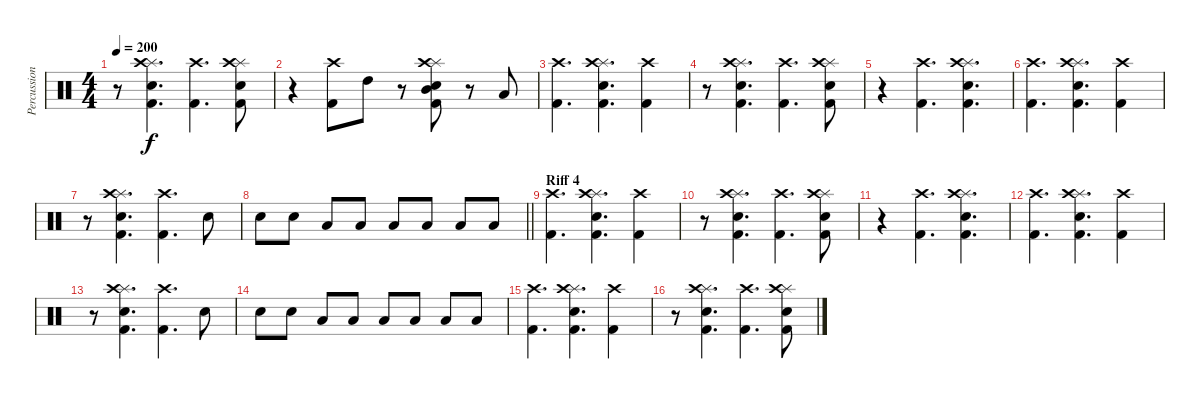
\track ("Percussion" "Percussion") {instrument percussion}
\staff {score}
\articulation defaults
\ts (4 4)
\tempo 200
\clef neutral
\ks c
r.8{dy f} ("Splash (hit)" "Crash high (hit)" "Electric Snare (hit)" "Kick (hit) 2").4{d} ("Crash high (hit)" "Kick (hit) 2").4{d} ("Splash (hit)" "Crash high (hit)" "Electric Snare (hit)" "Kick (hit) 2").8 |
r.4 ("Crash high (hit)" "Kick (hit) 2").8 "High Tom (hit)".8 r.8 ("Splash (hit)" "Mid Tom (hit)" "Crash high (hit)" "Electric Snare (hit)" "Kick (hit) 2").8 r.8 "Low Tom (hit)".8 |
("Crash high (hit)" "Kick (hit) 2").4{d} ("Splash (hit)" "Crash high (hit)" "Electric Snare (hit)" "Kick (hit) 2").4{d} ("Crash high (hit)" "Kick (hit) 2").4 |
r.8 ("Splash (hit)" "Crash high (hit)" "Electric Snare (hit)" "Kick (hit) 2").4{d} ("Crash high (hit)" "Kick (hit) 2").4{d} ("Splash (hit)" "Crash high (hit)" "Electric Snare (hit)" "Kick (hit) 2").8 |
r.4 ("Crash high (hit)" "Kick (hit) 2").4{d} ("Splash (hit)" "Crash high (hit)" "Electric Snare (hit)" "Kick (hit) 2").4{d} |
("Crash high (hit)" "Kick (hit) 2").4{d} ("Splash (hit)" "Crash high (hit)" "Electric Snare (hit)" "Kick (hit) 2").4{d} ("Crash high (hit)" "Kick (hit) 2").4 |
r.8 ("Splash (hit)" "Crash high (hit)" "Electric Snare (hit)" "Kick (hit) 2").4{d} ("Crash high (hit)" "Kick (hit) 2").4{d} "Snare (hit) 2".8 |
\barLineRight lightlight "Snare (hit) 2".8 "Snare (hit) 2".8 "Low Tom (hit)".8 "Low Tom (hit)".8 "Low Tom (hit)".8 "Low Floor Tom (hit)".8 "Low Floor Tom (hit)".8 "Low Floor Tom (hit)".8
|
\section ("" "Riff 4")
("Crash high (hit)" "Kick (hit) 2").4{d} ("Splash (hit)" "Crash high (hit)" "Electric Snare (hit)" "Kick (hit) 2").4{d} ("Crash high (hit)" "Kick (hit) 2").4 |
r.8 ("Splash (hit)" "Crash high (hit)" "Electric Snare (hit)" "Kick (hit) 2").4{d} ("Crash high (hit)" "Kick (hit) 2").4{d} ("Splash (hit)" "Crash high (hit)" "Electric Snare (hit)" "Kick (hit) 2").8 |
r.4 ("Crash high (hit)" "Kick (hit) 2").4{d} ("Splash (hit)" "Crash high (hit)" "Electric Snare (hit)" "Kick (hit) 2").4{d} |
("Crash high (hit)" "Kick (hit) 2").4{d} ("Splash (hit)" "Crash high (hit)" "Electric Snare (hit)" "Kick (hit) 2").4{d} ("Crash high (hit)" "Kick (hit) 2").4 |
r.8 ("Splash (hit)" "Crash high (hit)" "Electric Snare (hit)" "Kick (hit) 2").4{d} ("Crash high (hit)" "Kick (hit) 2").4{d} "Snare (hit) 2".8 |
"Snare (hit) 2".8 "Snare (hit) 2".8 "Low Tom (hit)".8 "Low Tom (hit)".8 "Low Tom (hit)".8 "Low Floor Tom (hit)".8 "Low Floor Tom (hit)".8 "Low Floor Tom (hit)".8 |
("Crash high (hit)" "Kick (hit) 2").4{d} ("Splash (hit)" "Crash high (hit)" "Electric Snare (hit)" "Kick (hit) 2").4{d} ("Crash high (hit)" "Kick (hit) 2").4 |
r.8 ("Splash (hit)" "Crash high (hit)" "Electric Snare (hit)" "Kick (hit) 2").4{d} ("Crash high (hit)" "Kick (hit) 2").4{d} ("Splash (hit)" "Crash high (hit)" "Electric Snare (hit)" "Kick (hit) 2").8
